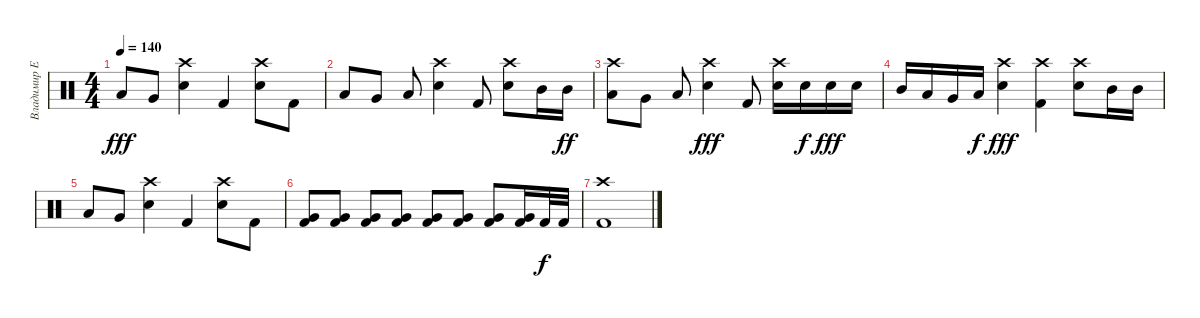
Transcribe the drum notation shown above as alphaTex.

\track ("Владимир Ермаков" "Владимир Е") {instrument percussion}
\staff {score}
\articulation defaults
\ts (4 4)
\tempo 140
\clef neutral
\ks c "Low Tom (hit)".8{dy fff} "Very Low Tom (hit)".8
("Crash high (hit)" "Electric Snare (hit)").4 "Kick (hit) 2".4 ("Crash high (hit)" "Electric Snare (hit)").8 "Kick (hit) 2".8 |
"Low Tom (hit)".8 "Very Low Tom (hit)".8 "Low Floor Tom (hit)".8 ("Crash high (hit)" "Electric Snare (hit)").4 "Kick (hit) 2".8 ("Crash high (hit)" "Electric Snare (hit)").8 "Mid Tom (hit)".16 "Mid Tom (hit)".16{dy ff} |
("Crash high (hit)" "Low Tom (hit)").8 "Very Low Tom (hit)".8 "Low Floor Tom (hit)".8 ("Crash high (hit)" "Electric Snare (hit)").4{dy fff} "Kick (hit) 2".8 ("Crash high (hit)" "Electric Snare (hit)").16 "Electric Snare (hit)".16{dy f} "Electric Snare (hit)".16{dy fff} "Electric Snare (hit)".16 |
"Mid Tom (hit)".16 "Low Tom (hit)".16 "Very Low Tom (hit)".16 "Low Floor Tom (hit)".16{dy f} ("Crash high (hit)" "Electric Snare (hit)").4{dy fff} ("Crash high (hit)" "Kick (hit) 2").4 ("Crash high (hit)" "Electric Snare (hit)").8 "Mid Tom (hit)".16 "Mid Tom (hit)".16 |
"Low Tom (hit)".8 "Very Low Tom (hit)".8 ("Crash high (hit)" "Electric Snare (hit)").4 "Kick (hit) 2".4 ("Crash high (hit)" "Electric Snare (hit)").8 "Kick (hit) 2".8 |
("Kick (hit) 2" "Very Low Tom (hit)").8 ("Kick (hit) 2" "Very Low Tom (hit)").8 ("Kick (hit) 2" "Very Low Tom (hit)").8 ("Kick (hit) 2" "Very Low Tom (hit)").8 ("Kick (hit) 2" "Very Low Tom (hit)").8 ("Kick (hit) 2" "Very Low Tom (hit)").8 ("Kick (hit) 2" "Very Low Tom (hit)").8 ("Kick (hit) 2" "Very Low Tom (hit)").16 "Kick (hit) 2".32{dy f} "Kick (hit) 2".32 |
("Crash high (hit)" "Kick (hit) 2").1
